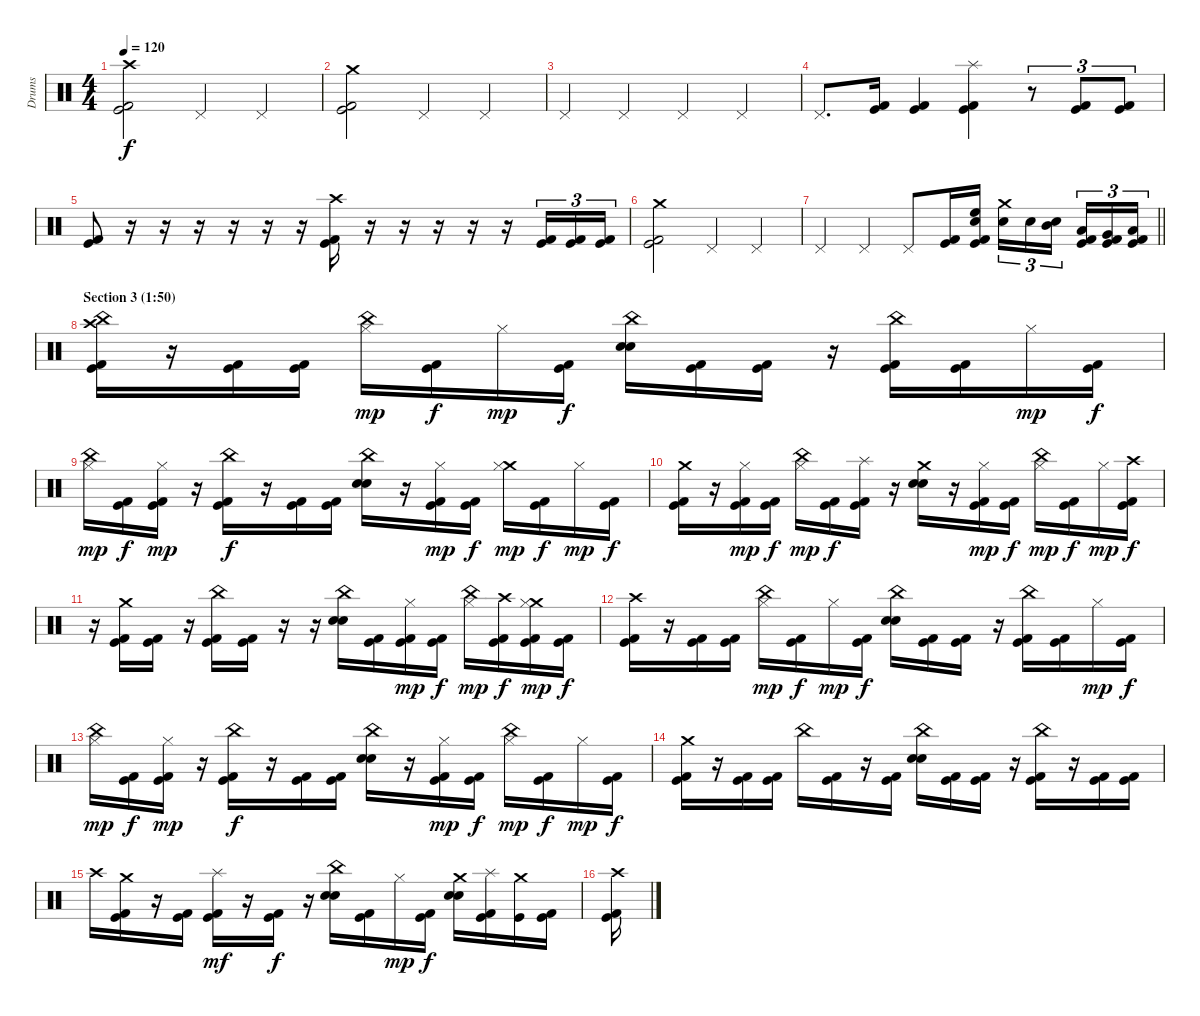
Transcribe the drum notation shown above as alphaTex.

\track ("Drums" "Drums") {instrument percussion}
\staff {score}
\articulation defaults
\ts (4 4)
\tempo 120
\clef neutral
\ks c
("Crash high (hit)" "Kick (hit) 2" "Kick (hit)").2{dy f} "Pedal Hi-Hat (hit)".4 "Pedal Hi-Hat (hit)".4 |
("Crash medium (hit)" "Kick (hit) 2" "Kick (hit)").2 "Pedal Hi-Hat (hit)".4 "Pedal Hi-Hat (hit)".4 |
"Pedal Hi-Hat (hit)".4 "Pedal Hi-Hat (hit)".4 "Pedal Hi-Hat (hit)".4 "Pedal Hi-Hat (hit)".4 |
"Pedal Hi-Hat (hit)".8{d} ("Kick (hit) 2" "Kick (hit)").16 ("Kick (hit) 2" "Kick (hit)").4 ("Splash (hit)" "Kick (hit) 2" "Kick (hit)").4 r.8{tu (3 2)} ("Kick (hit) 2" "Kick (hit)").8{tu (3 2)} ("Kick (hit) 2" "Kick (hit)").8{tu (3 2)} |
("Kick (hit) 2" "Kick (hit)").8 r.16 r.16 r.16 r.16 r.16 r.16 ("Crash high (hit)" "Kick (hit) 2" "Kick (hit)").16 r.16 r.16 r.16 r.16 r.16 ("Kick (hit) 2" "Kick (hit)").16{tu (3 2)} ("Kick (hit) 2" "Kick (hit)").16{tu (3 2)} ("Kick (hit) 2" "Kick (hit)").16{tu (3 2)} |
("Crash medium (hit)" "Kick (hit) 2" "Kick (hit)").2 "Pedal Hi-Hat (hit)".4 "Pedal Hi-Hat (hit)".4 |
\barLineRight lightlight "Pedal Hi-Hat (hit)".4 "Pedal Hi-Hat (hit)".4 "Pedal Hi-Hat (hit)".8
("Kick (hit) 2" "Kick (hit)").16 ("High Floor Tom (hit)" "Electric Snare (hit)" "Kick (hit) 2" "Kick (hit)").16 ("Crash medium (hit)" "Electric Snare (hit)").16{tu (3 2)} "Electric Snare (hit)".16{tu (3 2)} ("Mid Tom (hit)" "Electric Snare (hit)").16{tu (3 2) beam splitsecondary} ("Low Tom (hit)" "Kick (hit) 2" "Kick (hit)").16{tu (3 2)} ("Very Low Tom (hit)" "Kick (hit) 2" "Kick (hit)").16{tu (3 2)} ("Low Floor Tom (hit)" "Kick (hit) 2" "Kick (hit)").16{tu (3 2)} |
\section ("" "Section 3 (1:50)")
("Crash high (hit)" "China (hit)" "Kick (hit) 2" "Kick (hit)").16 r.16 ("Kick (hit) 2" "Kick (hit)").16 ("Kick (hit) 2" "Kick (hit)").16 ("China (hit)" "Hi-Hat (closed)").16{dy mp} ("Kick (hit) 2" "Kick (hit)").16{dy f} "Hi-Hat (closed)".16{dy mp} ("Kick (hit) 2" "Kick (hit)").16{dy f} ("China (hit)" "Electric Snare (hit)" "Electric Snare (hit)").16 ("Kick (hit) 2" "Kick (hit)").16 ("Kick (hit) 2" "Kick (hit)").16 r.16 ("China (hit)" "Kick (hit) 2" "Kick (hit)").16 ("Kick (hit) 2" "Kick (hit)").16 "Hi-Hat (closed)".16{dy mp} ("Kick (hit) 2" "Kick (hit)").16{dy f} |
("China (hit)" "Hi-Hat (closed)").16{dy mp} ("Kick (hit) 2" "Kick (hit)").16{dy f} ("Hi-Hat (closed)" "Kick (hit) 2" "Kick (hit)").16{dy mp} r.16 ("China (hit)" "Kick (hit) 2" "Kick (hit)").16{dy f} r.16 ("Kick (hit) 2" "Kick (hit)").16 ("Kick (hit) 2" "Kick (hit)").16 ("China (hit)" "Electric Snare (hit)" "Electric Snare (hit)").16 r.16 ("Hi-Hat (closed)" "Kick (hit) 2" "Kick (hit)").16{dy mp} ("Kick (hit) 2" "Kick (hit)").16{dy f} ("Crash medium (hit)" "Hi-Hat (closed)").16{dy mp} ("Kick (hit) 2" "Kick (hit)").16{dy f} "Hi-Hat (closed)".16{dy mp} ("Kick (hit) 2" "Kick (hit)").16{dy f} |
("Crash medium (hit)" "Kick (hit) 2" "Kick (hit)").16 r.16 ("Hi-Hat (closed)" "Kick (hit) 2" "Kick (hit)").16{dy mp} ("Kick (hit) 2" "Kick (hit)").16{dy f} ("China (hit)" "Hi-Hat (closed)").16{dy mp} ("Kick (hit) 2" "Kick (hit)").16{dy f} ("Splash (hit)" "Kick (hit) 2" "Kick (hit)").16 r.16 ("Crash medium (hit)" "Electric Snare (hit)" "Electric Snare (hit)").16 r.16 ("Hi-Hat (closed)" "Kick (hit) 2" "Kick (hit)").16{dy mp} ("Kick (hit) 2" "Kick (hit)").16{dy f} ("China (hit)" "Hi-Hat (closed)").16{dy mp} ("Kick (hit) 2" "Kick (hit)").16{dy f} "Hi-Hat (closed)".16{dy mp} ("Crash high (hit)" "Kick (hit) 2" "Kick (hit)").16{dy f} |
r.16 ("Crash medium (hit)" "Kick (hit) 2" "Kick (hit)").16 ("Kick (hit) 2" "Kick (hit)").16 r.16 ("China (hit)" "Kick (hit) 2" "Kick (hit)").16 ("Kick (hit) 2" "Kick (hit)").16 r.16 r.16 ("China (hit)" "Electric Snare (hit)" "Electric Snare (hit)").16 ("Kick (hit) 2" "Kick (hit)").16 ("Hi-Hat (closed)" "Kick (hit) 2" "Kick (hit)").16{dy mp} ("Kick (hit) 2" "Kick (hit)").16{dy f} ("China (hit)" "Hi-Hat (closed)").16{dy mp} ("Crash high (hit)" "Kick (hit) 2" "Kick (hit)").16{dy f} ("Crash medium (hit)" "Hi-Hat (closed)" "Kick (hit) 2" "Kick (hit)").16{dy mp} ("Kick (hit) 2" "Kick (hit)").16{dy f} |
("Crash high (hit)" "Kick (hit) 2" "Kick (hit)").16 r.16 ("Kick (hit) 2" "Kick (hit)").16 ("Kick (hit) 2" "Kick (hit)").16 ("China (hit)" "Hi-Hat (closed)").16{dy mp} ("Kick (hit) 2" "Kick (hit)").16{dy f} "Hi-Hat (closed)".16{dy mp} ("Kick (hit) 2" "Kick (hit)").16{dy f} ("China (hit)" "Electric Snare (hit)" "Electric Snare (hit)").16 ("Kick (hit) 2" "Kick (hit)").16 ("Kick (hit) 2" "Kick (hit)").16 r.16 ("China (hit)" "Kick (hit) 2" "Kick (hit)").16 ("Kick (hit) 2" "Kick (hit)").16 "Hi-Hat (closed)".16{dy mp} ("Kick (hit) 2" "Kick (hit)").16{dy f} |
("China (hit)" "Hi-Hat (closed)").16{dy mp} ("Kick (hit) 2" "Kick (hit)").16{dy f} ("Hi-Hat (closed)" "Kick (hit) 2" "Kick (hit)").16{dy mp} r.16 ("China (hit)" "Kick (hit) 2" "Kick (hit)").16{dy f} r.16 ("Kick (hit) 2" "Kick (hit)").16 ("Kick (hit) 2" "Kick (hit)").16 ("China (hit)" "Electric Snare (hit)" "Electric Snare (hit)").16 r.16 ("Hi-Hat (closed)" "Kick (hit) 2" "Kick (hit)").16{dy mp} ("Kick (hit) 2" "Kick (hit)").16{dy f} ("China (hit)" "Hi-Hat (closed)").16{dy mp} ("Kick (hit) 2" "Kick (hit)").16{dy f} "Hi-Hat (closed)".16{dy mp} ("Kick (hit) 2" "Kick (hit)").16{dy f} |
("Crash medium (hit)" "Kick (hit) 2" "Kick (hit)").16 r.16 ("Kick (hit) 2" "Kick (hit)").16 ("Kick (hit) 2" "Kick (hit)").16 "China (hit)".16 ("Kick (hit) 2" "Kick (hit)").16 r.16 ("Kick (hit) 2" "Kick (hit)").16 ("China (hit)" "Electric Snare (hit)" "Electric Snare (hit)").16 ("Kick (hit) 2" "Kick (hit)").16 ("Kick (hit) 2" "Kick (hit)").16 r.16 ("China (hit)" "Kick (hit) 2" "Kick (hit)").16 r.16 ("Kick (hit) 2" "Kick (hit)").16 ("Kick (hit) 2" "Kick (hit)").16 |
"Crash high (hit)".16 ("Crash medium (hit)" "Kick (hit) 2" "Kick (hit)").16 r.16 ("Kick (hit) 2" "Kick (hit)").16 ("Splash (hit)" "Kick (hit) 2" "Kick (hit)").16{dy mf} r.16 ("Kick (hit) 2" "Kick (hit)").16{dy f} r.16 ("China (hit)" "Electric Snare (hit)" "Electric Snare (hit)").16 ("Kick (hit) 2" "Kick (hit)").16 "Hi-Hat (closed)".16{dy mp} ("Kick (hit) 2" "Kick (hit)").16{dy f} ("Crash medium (hit)" "Electric Snare (hit)" "Electric Snare (hit)").16 ("Splash (hit)" "Kick (hit) 2" "Kick (hit)").16 ("Crash medium (hit)" "Kick (hit)").16 ("Kick (hit) 2" "Kick (hit)").16 |
("Crash high (hit)" "Kick (hit) 2" "Kick (hit)").16
